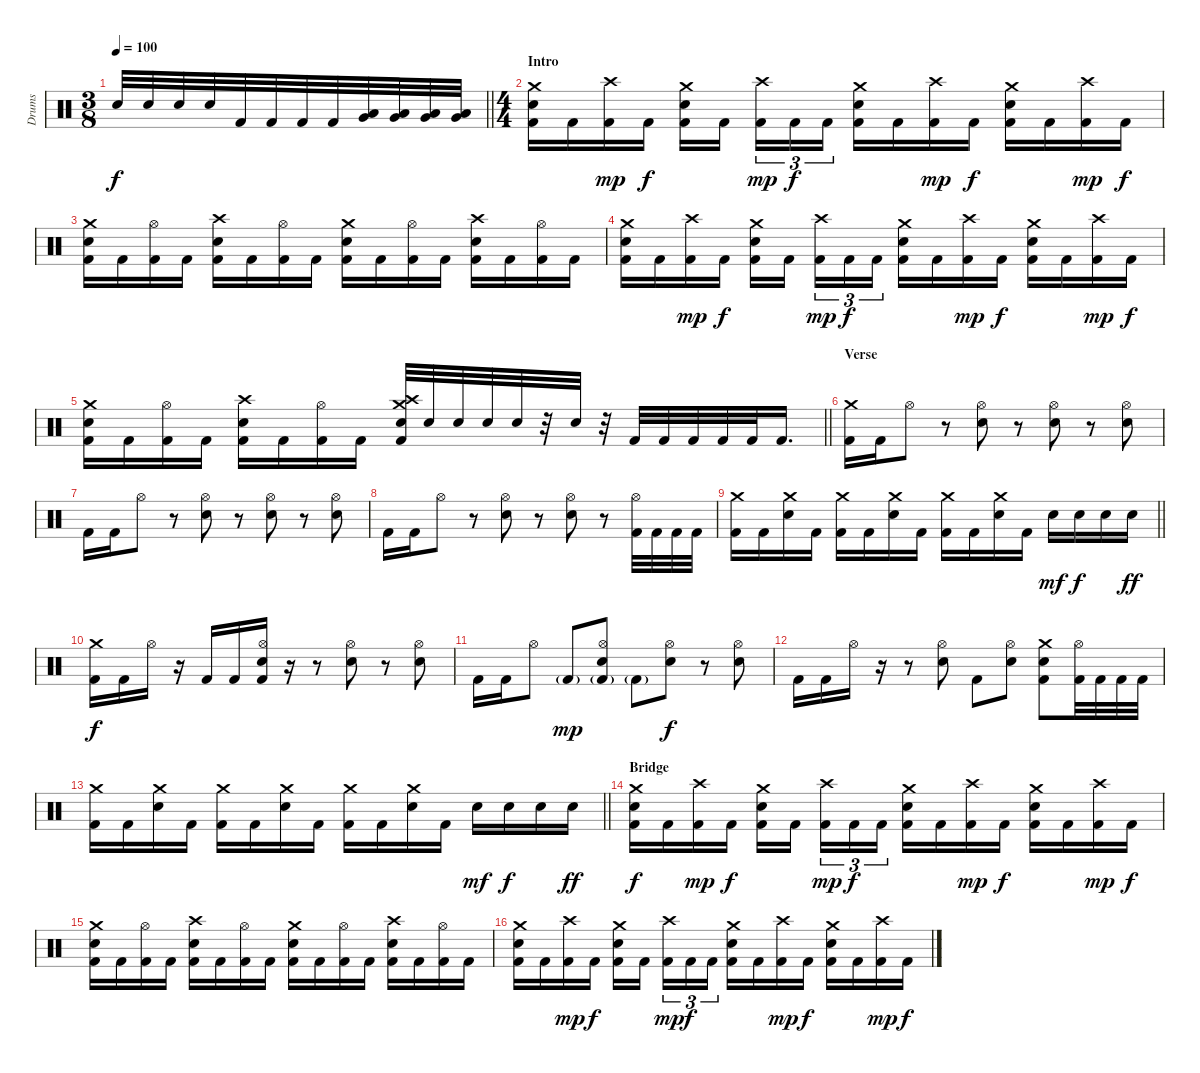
\track ("Drums" "Drums") {instrument percussion}
\staff {score}
\articulation defaults
\ts (3 8)
\tempo 100
\clef neutral
\barLineRight lightlight
\ks c "Snare (hit) 2".32{dy f} "Snare (hit) 2".32 "Snare (hit) 2".32 "Snare (hit) 2".32 "Kick (hit) 2".32 "Kick (hit) 2".32 "Kick (hit) 2".32 "Kick (hit) 2".32
("Very Low Tom (hit)" "Low Floor Tom (hit)").32 ("Very Low Tom (hit)" "Low Floor Tom (hit)").32 ("Very Low Tom (hit)" "Low Floor Tom (hit)").32 ("Very Low Tom (hit)" "Low Floor Tom (hit)").32 |
\ts (4 4)
\section ("" "Intro")
("Crash medium (hit)" "Snare (hit) 2" "Kick (hit) 2").16 "Kick (hit) 2".16 ("Crash high (hit)" "Kick (hit) 2").16{dy mp} "Kick (hit) 2".16{dy f} ("Crash medium (hit)" "Snare (hit) 2" "Kick (hit) 2").16 "Kick (hit) 2".16{beam splitsecondary} ("Crash high (hit)" "Kick (hit) 2").16{tu (3 2) dy mp} "Kick (hit) 2".16{tu (3 2) dy f} "Kick (hit) 2".16{tu (3 2)} ("Crash medium (hit)" "Snare (hit) 2" "Kick (hit) 2").16 "Kick (hit) 2".16 ("Crash high (hit)" "Kick (hit) 2").16{dy mp} "Kick (hit) 2".16{dy f} ("Crash medium (hit)" "Snare (hit) 2" "Kick (hit) 2").16 "Kick (hit) 2".16 ("Crash high (hit)" "Kick (hit) 2").16{dy mp} "Kick (hit) 2".16{dy f} |
("Crash medium (hit)" "Snare (hit) 2" "Kick (hit) 2").16 "Kick (hit) 2".16 ("Hi-Hat (open)" "Kick (hit) 2").16 "Kick (hit) 2".16 ("Crash high (hit)" "Snare (hit) 2" "Kick (hit) 2").16 "Kick (hit) 2".16 ("Hi-Hat (open)" "Kick (hit) 2").16 "Kick (hit) 2".16 ("Crash medium (hit)" "Snare (hit) 2" "Kick (hit) 2").16 "Kick (hit) 2".16 ("Hi-Hat (open)" "Kick (hit) 2").16 "Kick (hit) 2".16 ("Crash high (hit)" "Snare (hit) 2" "Kick (hit) 2").16 "Kick (hit) 2".16 ("Hi-Hat (open)" "Kick (hit) 2").16 "Kick (hit) 2".16 |
("Crash medium (hit)" "Snare (hit) 2" "Kick (hit) 2").16 "Kick (hit) 2".16 ("Crash high (hit)" "Kick (hit) 2").16{dy mp} "Kick (hit) 2".16{dy f} ("Crash medium (hit)" "Snare (hit) 2" "Kick (hit) 2").16 "Kick (hit) 2".16{beam splitsecondary} ("Crash high (hit)" "Kick (hit) 2").16{tu (3 2) dy mp} "Kick (hit) 2".16{tu (3 2) dy f} "Kick (hit) 2".16{tu (3 2)} ("Crash medium (hit)" "Snare (hit) 2" "Kick (hit) 2").16 "Kick (hit) 2".16 ("Crash high (hit)" "Kick (hit) 2").16{dy mp} "Kick (hit) 2".16{dy f} ("Crash medium (hit)" "Snare (hit) 2" "Kick (hit) 2").16 "Kick (hit) 2".16 ("Crash high (hit)" "Kick (hit) 2").16{dy mp} "Kick (hit) 2".16{dy f} |
\barLineRight lightlight
("Crash medium (hit)" "Electric Snare (hit)" "Kick (hit) 2").16 "Kick (hit) 2".16 ("Hi-Hat (open)" "Kick (hit) 2").16 "Kick (hit) 2".16 ("Crash high (hit)" "Electric Snare (hit)" "Kick (hit) 2").16 "Kick (hit) 2".16 ("Hi-Hat (open)" "Kick (hit) 2").16 "Kick (hit) 2".16 ("Crash medium (hit)" "Crash high (hit)" "Electric Snare (hit)" "Kick (hit) 2").32 "Electric Snare (hit)".32 "Electric Snare (hit)".32 "Electric Snare (hit)".32 "Electric Snare (hit)".32 r.32 "Electric Snare (hit)".32 r.32 "Kick (hit) 2".32 "Kick (hit) 2".32 "Kick (hit) 2".32 "Kick (hit) 2".32 "Kick (hit) 2".32 "Kick (hit) 2".16{d} |
\section ("" "Verse")
("Crash medium (hit)" "Kick (hit) 2").16 "Kick (hit) 2".16 "Hi-Hat (open)".8 r.8 ("Hi-Hat (open)" "Electric Snare (hit)").8 r.8 ("Hi-Hat (open)" "Electric Snare (hit)").8 r.8 ("Hi-Hat (open)" "Electric Snare (hit)").8 |
"Kick (hit) 2".16 "Kick (hit) 2".16 "Hi-Hat (open)".8 r.8 ("Hi-Hat (open)" "Electric Snare (hit)").8 r.8 ("Hi-Hat (open)" "Electric Snare (hit)").8 r.8 ("Hi-Hat (open)" "Electric Snare (hit)").8 |
"Kick (hit) 2".16 "Kick (hit) 2".16 "Hi-Hat (open)".8 r.8 ("Hi-Hat (open)" "Electric Snare (hit)").8 r.8 ("Hi-Hat (open)" "Electric Snare (hit)").8 r.8 ("Hi-Hat (open)" "Kick (hit) 2").32 "Kick (hit) 2".32 "Kick (hit) 2".32 "Kick (hit) 2".32 |
\barLineRight lightlight
("Crash medium (hit)" "Kick (hit) 2").16 "Kick (hit) 2".16 ("Crash medium (hit)" "Electric Snare (hit)").16 "Kick (hit) 2".16 ("Crash medium (hit)" "Kick (hit) 2").16 "Kick (hit) 2".16 ("Crash medium (hit)" "Electric Snare (hit)").16 "Kick (hit) 2".16 ("Crash medium (hit)" "Kick (hit) 2").16 "Kick (hit) 2".16 ("Crash medium (hit)" "Electric Snare (hit)").16 "Kick (hit) 2".16 "Electric Snare (hit)".16{dy mf} "Electric Snare (hit)".16{dy f} "Electric Snare (hit)".16 "Electric Snare (hit)".16{dy ff} |
("Crash medium (hit)" "Kick (hit) 2").16{dy f} "Kick (hit) 2".16 "Hi-Hat (open)".16 r.16 "Kick (hit) 2".16 "Kick (hit) 2".16 ("Hi-Hat (open)" "Electric Snare (hit)" "Kick (hit) 2").16 r.16 r.8 ("Hi-Hat (open)" "Electric Snare (hit)").8 r.8 ("Hi-Hat (open)" "Electric Snare (hit)").8 |
"Kick (hit) 2".16 "Kick (hit) 2".16 "Hi-Hat (open)".8 "Kick (hit) 2"{g}.8{dy mp} ("Hi-Hat (open)" "Electric Snare (hit)" "Kick (hit) 2"{g}).8 "Kick (hit) 2"{g}.8 ("Hi-Hat (open)" "Electric Snare (hit)").8{dy f} r.8 ("Hi-Hat (open)" "Electric Snare (hit)").8 |
"Kick (hit) 2".16 "Kick (hit) 2".16 "Hi-Hat (open)".16 r.16 r.8 ("Hi-Hat (open)" "Electric Snare (hit)").8 "Kick (hit) 2".8 ("Hi-Hat (open)" "Electric Snare (hit)").8 ("Crash medium (hit)" "Electric Snare (hit)" "Kick (hit) 2").8 ("Hi-Hat (open)" "Kick (hit) 2").32 "Kick (hit) 2".32 "Kick (hit) 2".32 "Kick (hit) 2".32 |
\barLineRight lightlight
("Crash medium (hit)" "Kick (hit) 2").16 "Kick (hit) 2".16 ("Crash medium (hit)" "Electric Snare (hit)").16 "Kick (hit) 2".16 ("Crash medium (hit)" "Kick (hit) 2").16 "Kick (hit) 2".16 ("Crash medium (hit)" "Electric Snare (hit)").16 "Kick (hit) 2".16 ("Crash medium (hit)" "Kick (hit) 2").16 "Kick (hit) 2".16 ("Crash medium (hit)" "Electric Snare (hit)").16 "Kick (hit) 2".16 "Electric Snare (hit)".16{dy mf} "Electric Snare (hit)".16{dy f} "Electric Snare (hit)".16 "Electric Snare (hit)".16{dy ff} |
\section ("" "Bridge")
("Crash medium (hit)" "Snare (hit) 2" "Kick (hit) 2").16{dy f} "Kick (hit) 2".16 ("Crash high (hit)" "Kick (hit) 2").16{dy mp} "Kick (hit) 2".16{dy f} ("Crash medium (hit)" "Snare (hit) 2" "Kick (hit) 2").16 "Kick (hit) 2".16{beam splitsecondary} ("Crash high (hit)" "Kick (hit) 2").16{tu (3 2) dy mp} "Kick (hit) 2".16{tu (3 2) dy f} "Kick (hit) 2".16{tu (3 2)} ("Crash medium (hit)" "Snare (hit) 2" "Kick (hit) 2").16 "Kick (hit) 2".16 ("Crash high (hit)" "Kick (hit) 2").16{dy mp} "Kick (hit) 2".16{dy f} ("Crash medium (hit)" "Snare (hit) 2" "Kick (hit) 2").16 "Kick (hit) 2".16 ("Crash high (hit)" "Kick (hit) 2").16{dy mp} "Kick (hit) 2".16{dy f} |
("Crash medium (hit)" "Snare (hit) 2" "Kick (hit) 2").16 "Kick (hit) 2".16 ("Hi-Hat (open)" "Kick (hit) 2").16 "Kick (hit) 2".16 ("Crash high (hit)" "Snare (hit) 2" "Kick (hit) 2").16 "Kick (hit) 2".16 ("Hi-Hat (open)" "Kick (hit) 2").16 "Kick (hit) 2".16 ("Crash medium (hit)" "Snare (hit) 2" "Kick (hit) 2").16 "Kick (hit) 2".16 ("Hi-Hat (open)" "Kick (hit) 2").16 "Kick (hit) 2".16 ("Crash high (hit)" "Snare (hit) 2" "Kick (hit) 2").16 "Kick (hit) 2".16 ("Hi-Hat (open)" "Kick (hit) 2").16 "Kick (hit) 2".16 |
("Crash medium (hit)" "Snare (hit) 2" "Kick (hit) 2").16 "Kick (hit) 2".16 ("Crash high (hit)" "Kick (hit) 2").16{dy mp} "Kick (hit) 2".16{dy f} ("Crash medium (hit)" "Snare (hit) 2" "Kick (hit) 2").16 "Kick (hit) 2".16{beam splitsecondary} ("Crash high (hit)" "Kick (hit) 2").16{tu (3 2) dy mp} "Kick (hit) 2".16{tu (3 2) dy f} "Kick (hit) 2".16{tu (3 2)} ("Crash medium (hit)" "Snare (hit) 2" "Kick (hit) 2").16 "Kick (hit) 2".16 ("Crash high (hit)" "Kick (hit) 2").16{dy mp} "Kick (hit) 2".16{dy f} ("Crash medium (hit)" "Snare (hit) 2" "Kick (hit) 2").16 "Kick (hit) 2".16 ("Crash high (hit)" "Kick (hit) 2").16{dy mp} "Kick (hit) 2".16{dy f}
